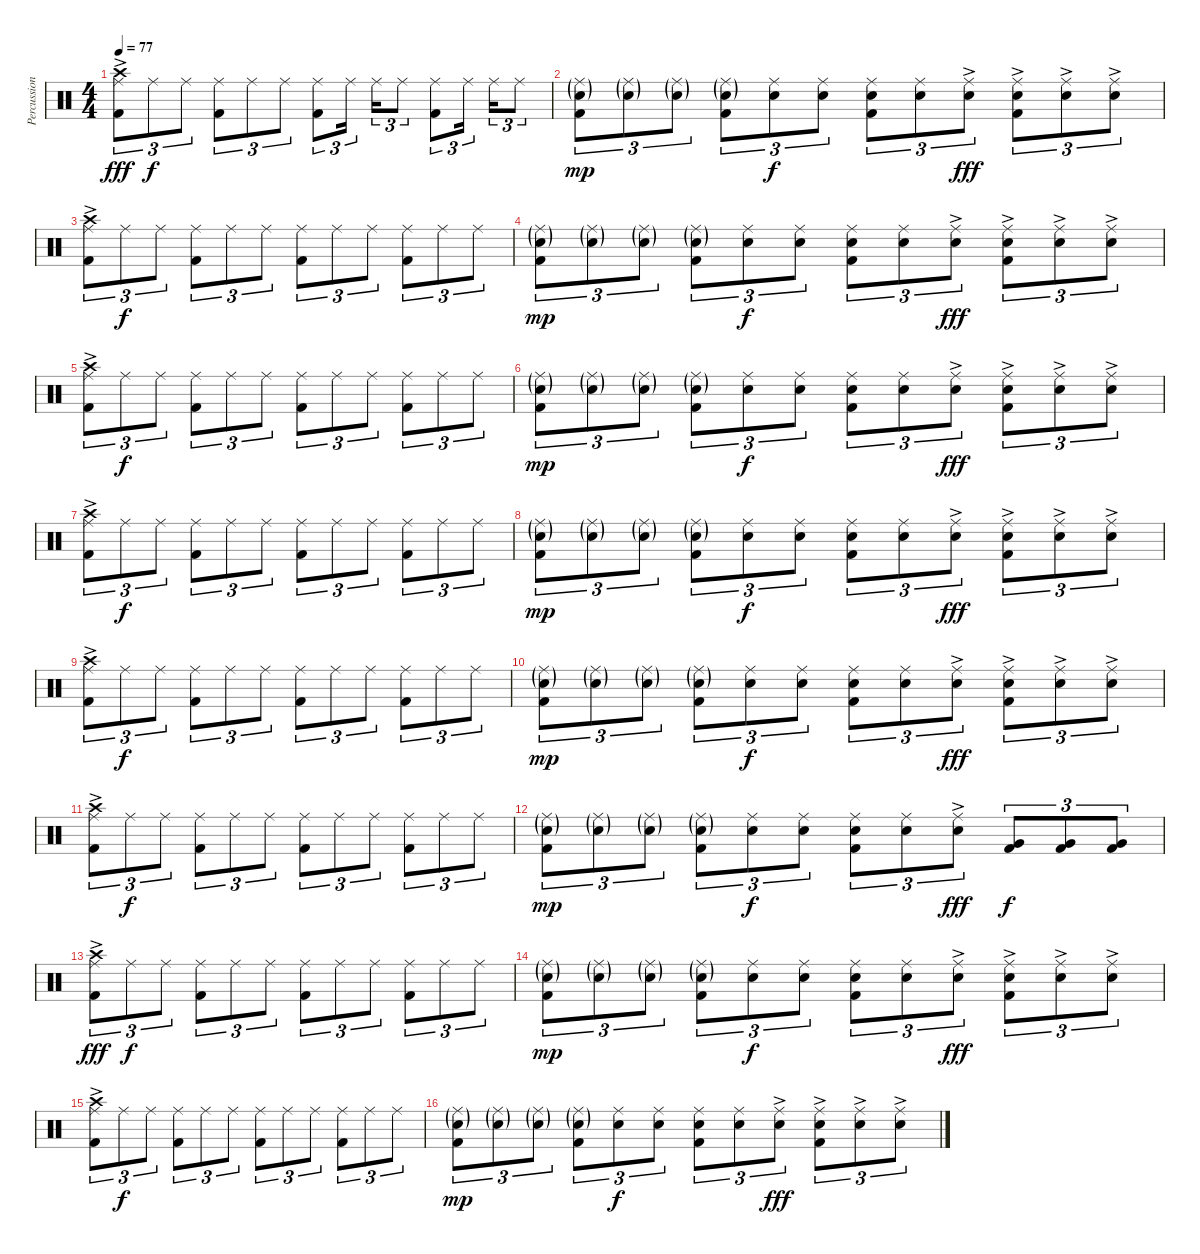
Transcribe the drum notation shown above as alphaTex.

\track ("Percussion" "Percussion") {instrument percussion}
\staff {score}
\articulation defaults
\ts (4 4)
\tempo 77
\clef neutral
\ks c
("Ride (middle)"{ac} "Crash high (hit)"{ac} "Kick (hit) 2").8{tu (3 2) dy fff} "Ride (middle)".8{tu (3 2) dy f} "Ride (middle)".8{tu (3 2)} ("Ride (middle)" "Kick (hit) 2").8{tu (3 2)} "Ride (middle)".8{tu (3 2)} "Ride (middle)".8{tu (3 2)} ("Ride (middle)" "Kick (hit) 2").8{tu (3 2)} "Ride (middle)".16{tu (3 2)} "Ride (middle)".16{tu (3 2)} "Ride (middle)".8{tu (3 2)} ("Ride (middle)" "Kick (hit) 2").8{tu (3 2)} "Ride (middle)".16{tu (3 2)} "Ride (middle)".16{tu (3 2)} "Ride (middle)".8{tu (3 2)} |
("Ride (middle)"{g} "Snare (hit) 2"{g} "Kick (hit) 2").8{tu (3 2) dy mp} ("Ride (middle)"{g} "Snare (hit) 2"{g}).8{tu (3 2)} ("Ride (middle)"{g} "Snare (hit) 2"{g}).8{tu (3 2)} ("Ride (middle)"{g} "Snare (hit) 2"{g} "Kick (hit) 2").8{tu (3 2)} ("Ride (middle)" "Snare (hit) 2").8{tu (3 2) dy f} ("Ride (middle)" "Snare (hit) 2").8{tu (3 2)} ("Ride (middle)" "Snare (hit) 2" "Kick (hit) 2").8{tu (3 2)} ("Ride (middle)" "Snare (hit) 2").8{tu (3 2)} ("Ride (middle)"{ac} "Snare (hit) 2"{ac}).8{tu (3 2) dy fff} ("Ride (middle)"{ac} "Snare (hit) 2"{ac} "Kick (hit) 2").8{tu (3 2)} ("Ride (middle)"{ac} "Snare (hit) 2"{ac}).8{tu (3 2)} ("Ride (middle)"{ac} "Snare (hit) 2"{ac}).8{tu (3 2)} |
("Ride (middle)"{ac} "Crash high (hit)"{ac} "Kick (hit) 2").8{tu (3 2)} "Ride (middle)".8{tu (3 2) dy f} "Ride (middle)".8{tu (3 2)} ("Ride (middle)" "Kick (hit) 2").8{tu (3 2)} "Ride (middle)".8{tu (3 2)} "Ride (middle)".8{tu (3 2)} ("Ride (middle)" "Kick (hit) 2").8{tu (3 2)} "Ride (middle)".8{tu (3 2)} "Ride (middle)".8{tu (3 2)} ("Ride (middle)" "Kick (hit) 2").8{tu (3 2)} "Ride (middle)".8{tu (3 2)} "Ride (middle)".8{tu (3 2)} |
("Ride (middle)"{g} "Snare (hit) 2"{g} "Kick (hit) 2").8{tu (3 2) dy mp} ("Ride (middle)"{g} "Snare (hit) 2"{g}).8{tu (3 2)} ("Ride (middle)"{g} "Snare (hit) 2"{g}).8{tu (3 2)} ("Ride (middle)"{g} "Snare (hit) 2"{g} "Kick (hit) 2").8{tu (3 2)} ("Ride (middle)" "Snare (hit) 2").8{tu (3 2) dy f} ("Ride (middle)" "Snare (hit) 2").8{tu (3 2)} ("Ride (middle)" "Snare (hit) 2" "Kick (hit) 2").8{tu (3 2)} ("Ride (middle)" "Snare (hit) 2").8{tu (3 2)} ("Ride (middle)"{ac} "Snare (hit) 2"{ac}).8{tu (3 2) dy fff} ("Ride (middle)"{ac} "Snare (hit) 2"{ac} "Kick (hit) 2").8{tu (3 2)} ("Ride (middle)"{ac} "Snare (hit) 2"{ac}).8{tu (3 2)} ("Ride (middle)"{ac} "Snare (hit) 2"{ac}).8{tu (3 2)} |
("Ride (middle)"{ac} "Crash high (hit)"{ac} "Kick (hit) 2").8{tu (3 2)} "Ride (middle)".8{tu (3 2) dy f} "Ride (middle)".8{tu (3 2)} ("Ride (middle)" "Kick (hit) 2").8{tu (3 2)} "Ride (middle)".8{tu (3 2)} "Ride (middle)".8{tu (3 2)} ("Ride (middle)" "Kick (hit) 2").8{tu (3 2)} "Ride (middle)".8{tu (3 2)} "Ride (middle)".8{tu (3 2)} ("Ride (middle)" "Kick (hit) 2").8{tu (3 2)} "Ride (middle)".8{tu (3 2)} "Ride (middle)".8{tu (3 2)} |
("Ride (middle)"{g} "Snare (hit) 2"{g} "Kick (hit) 2").8{tu (3 2) dy mp} ("Ride (middle)"{g} "Snare (hit) 2"{g}).8{tu (3 2)} ("Ride (middle)"{g} "Snare (hit) 2"{g}).8{tu (3 2)} ("Ride (middle)"{g} "Snare (hit) 2"{g} "Kick (hit) 2").8{tu (3 2)} ("Ride (middle)" "Snare (hit) 2").8{tu (3 2) dy f} ("Ride (middle)" "Snare (hit) 2").8{tu (3 2)} ("Ride (middle)" "Snare (hit) 2" "Kick (hit) 2").8{tu (3 2)} ("Ride (middle)" "Snare (hit) 2").8{tu (3 2)} ("Ride (middle)"{ac} "Snare (hit) 2"{ac}).8{tu (3 2) dy fff} ("Ride (middle)"{ac} "Snare (hit) 2"{ac} "Kick (hit) 2").8{tu (3 2)} ("Ride (middle)"{ac} "Snare (hit) 2"{ac}).8{tu (3 2)} ("Ride (middle)"{ac} "Snare (hit) 2"{ac}).8{tu (3 2)} |
("Ride (middle)"{ac} "Crash high (hit)"{ac} "Kick (hit) 2").8{tu (3 2)} "Ride (middle)".8{tu (3 2) dy f} "Ride (middle)".8{tu (3 2)} ("Ride (middle)" "Kick (hit) 2").8{tu (3 2)} "Ride (middle)".8{tu (3 2)} "Ride (middle)".8{tu (3 2)} ("Ride (middle)" "Kick (hit) 2").8{tu (3 2)} "Ride (middle)".8{tu (3 2)} "Ride (middle)".8{tu (3 2)} ("Ride (middle)" "Kick (hit) 2").8{tu (3 2)} "Ride (middle)".8{tu (3 2)} "Ride (middle)".8{tu (3 2)} |
("Ride (middle)"{g} "Snare (hit) 2"{g} "Kick (hit) 2").8{tu (3 2) dy mp} ("Ride (middle)"{g} "Snare (hit) 2"{g}).8{tu (3 2)} ("Ride (middle)"{g} "Snare (hit) 2"{g}).8{tu (3 2)} ("Ride (middle)"{g} "Snare (hit) 2"{g} "Kick (hit) 2").8{tu (3 2)} ("Ride (middle)" "Snare (hit) 2").8{tu (3 2) dy f} ("Ride (middle)" "Snare (hit) 2").8{tu (3 2)} ("Ride (middle)" "Snare (hit) 2" "Kick (hit) 2").8{tu (3 2)} ("Ride (middle)" "Snare (hit) 2").8{tu (3 2)} ("Ride (middle)"{ac} "Snare (hit) 2"{ac}).8{tu (3 2) dy fff} ("Ride (middle)"{ac} "Snare (hit) 2"{ac} "Kick (hit) 2").8{tu (3 2)} ("Ride (middle)"{ac} "Snare (hit) 2"{ac}).8{tu (3 2)} ("Ride (middle)"{ac} "Snare (hit) 2"{ac}).8{tu (3 2)} |
("Ride (middle)"{ac} "Crash high (hit)"{ac} "Kick (hit) 2").8{tu (3 2)} "Ride (middle)".8{tu (3 2) dy f} "Ride (middle)".8{tu (3 2)} ("Ride (middle)" "Kick (hit) 2").8{tu (3 2)} "Ride (middle)".8{tu (3 2)} "Ride (middle)".8{tu (3 2)} ("Ride (middle)" "Kick (hit) 2").8{tu (3 2)} "Ride (middle)".8{tu (3 2)} "Ride (middle)".8{tu (3 2)} ("Ride (middle)" "Kick (hit) 2").8{tu (3 2)} "Ride (middle)".8{tu (3 2)} "Ride (middle)".8{tu (3 2)} |
("Ride (middle)"{g} "Snare (hit) 2"{g} "Kick (hit) 2").8{tu (3 2) dy mp} ("Ride (middle)"{g} "Snare (hit) 2"{g}).8{tu (3 2)} ("Ride (middle)"{g} "Snare (hit) 2"{g}).8{tu (3 2)} ("Ride (middle)"{g} "Snare (hit) 2"{g} "Kick (hit) 2").8{tu (3 2)} ("Ride (middle)" "Snare (hit) 2").8{tu (3 2) dy f} ("Ride (middle)" "Snare (hit) 2").8{tu (3 2)} ("Ride (middle)" "Snare (hit) 2" "Kick (hit) 2").8{tu (3 2)} ("Ride (middle)" "Snare (hit) 2").8{tu (3 2)} ("Ride (middle)"{ac} "Snare (hit) 2"{ac}).8{tu (3 2) dy fff} ("Ride (middle)"{ac} "Snare (hit) 2"{ac} "Kick (hit) 2").8{tu (3 2)} ("Ride (middle)"{ac} "Snare (hit) 2"{ac}).8{tu (3 2)} ("Ride (middle)"{ac} "Snare (hit) 2"{ac}).8{tu (3 2)} |
("Ride (middle)"{ac} "Crash high (hit)"{ac} "Kick (hit) 2").8{tu (3 2)} "Ride (middle)".8{tu (3 2) dy f} "Ride (middle)".8{tu (3 2)} ("Ride (middle)" "Kick (hit) 2").8{tu (3 2)} "Ride (middle)".8{tu (3 2)} "Ride (middle)".8{tu (3 2)} ("Ride (middle)" "Kick (hit) 2").8{tu (3 2)} "Ride (middle)".8{tu (3 2)} "Ride (middle)".8{tu (3 2)} ("Ride (middle)" "Kick (hit) 2").8{tu (3 2)} "Ride (middle)".8{tu (3 2)} "Ride (middle)".8{tu (3 2)} |
("Ride (middle)"{g} "Snare (hit) 2"{g} "Kick (hit) 2").8{tu (3 2) dy mp} ("Ride (middle)"{g} "Snare (hit) 2"{g}).8{tu (3 2)} ("Ride (middle)"{g} "Snare (hit) 2"{g}).8{tu (3 2)} ("Ride (middle)"{g} "Snare (hit) 2"{g} "Kick (hit) 2").8{tu (3 2)} ("Ride (middle)" "Snare (hit) 2").8{tu (3 2) dy f} ("Ride (middle)" "Snare (hit) 2").8{tu (3 2)} ("Ride (middle)" "Snare (hit) 2" "Kick (hit) 2").8{tu (3 2)} ("Ride (middle)" "Snare (hit) 2").8{tu (3 2)} ("Ride (middle)"{ac} "Snare (hit) 2"{ac}).8{tu (3 2) dy fff} ("Very Low Tom (hit)" "Kick (hit) 2").8{tu (3 2) dy f} ("Very Low Tom (hit)" "Kick (hit) 2").8{tu (3 2)} ("Very Low Tom (hit)" "Kick (hit) 2").8{tu (3 2)} |
("Ride (middle)"{ac} "Crash high (hit)"{ac} "Kick (hit) 2").8{tu (3 2) dy fff} "Ride (middle)".8{tu (3 2) dy f} "Ride (middle)".8{tu (3 2)} ("Ride (middle)" "Kick (hit) 2").8{tu (3 2)} "Ride (middle)".8{tu (3 2)} "Ride (middle)".8{tu (3 2)} ("Ride (middle)" "Kick (hit) 2").8{tu (3 2)} "Ride (middle)".8{tu (3 2)} "Ride (middle)".8{tu (3 2)} ("Ride (middle)" "Kick (hit) 2").8{tu (3 2)} "Ride (middle)".8{tu (3 2)} "Ride (middle)".8{tu (3 2)} |
("Ride (middle)"{g} "Snare (hit) 2"{g} "Kick (hit) 2").8{tu (3 2) dy mp} ("Ride (middle)"{g} "Snare (hit) 2"{g}).8{tu (3 2)} ("Ride (middle)"{g} "Snare (hit) 2"{g}).8{tu (3 2)} ("Ride (middle)"{g} "Snare (hit) 2"{g} "Kick (hit) 2").8{tu (3 2)} ("Ride (middle)" "Snare (hit) 2").8{tu (3 2) dy f} ("Ride (middle)" "Snare (hit) 2").8{tu (3 2)} ("Ride (middle)" "Snare (hit) 2" "Kick (hit) 2").8{tu (3 2)} ("Ride (middle)" "Snare (hit) 2").8{tu (3 2)} ("Ride (middle)"{ac} "Snare (hit) 2"{ac}).8{tu (3 2) dy fff} ("Ride (middle)"{ac} "Snare (hit) 2"{ac} "Kick (hit) 2").8{tu (3 2)} ("Ride (middle)"{ac} "Snare (hit) 2"{ac}).8{tu (3 2)} ("Ride (middle)"{ac} "Snare (hit) 2"{ac}).8{tu (3 2)} |
("Ride (middle)"{ac} "Crash high (hit)"{ac} "Kick (hit) 2").8{tu (3 2)} "Ride (middle)".8{tu (3 2) dy f} "Ride (middle)".8{tu (3 2)} ("Ride (middle)" "Kick (hit) 2").8{tu (3 2)} "Ride (middle)".8{tu (3 2)} "Ride (middle)".8{tu (3 2)} ("Ride (middle)" "Kick (hit) 2").8{tu (3 2)} "Ride (middle)".8{tu (3 2)} "Ride (middle)".8{tu (3 2)} ("Ride (middle)" "Kick (hit) 2").8{tu (3 2)} "Ride (middle)".8{tu (3 2)} "Ride (middle)".8{tu (3 2)} |
("Ride (middle)"{g} "Snare (hit) 2"{g} "Kick (hit) 2").8{tu (3 2) dy mp} ("Ride (middle)"{g} "Snare (hit) 2"{g}).8{tu (3 2)} ("Ride (middle)"{g} "Snare (hit) 2"{g}).8{tu (3 2)} ("Ride (middle)"{g} "Snare (hit) 2"{g} "Kick (hit) 2").8{tu (3 2)} ("Ride (middle)" "Snare (hit) 2").8{tu (3 2) dy f} ("Ride (middle)" "Snare (hit) 2").8{tu (3 2)} ("Ride (middle)" "Snare (hit) 2" "Kick (hit) 2").8{tu (3 2)} ("Ride (middle)" "Snare (hit) 2").8{tu (3 2)} ("Ride (middle)"{ac} "Snare (hit) 2"{ac}).8{tu (3 2) dy fff} ("Ride (middle)"{ac} "Snare (hit) 2"{ac} "Kick (hit) 2").8{tu (3 2)} ("Ride (middle)"{ac} "Snare (hit) 2"{ac}).8{tu (3 2)} ("Ride (middle)"{ac} "Snare (hit) 2"{ac}).8{tu (3 2)}
